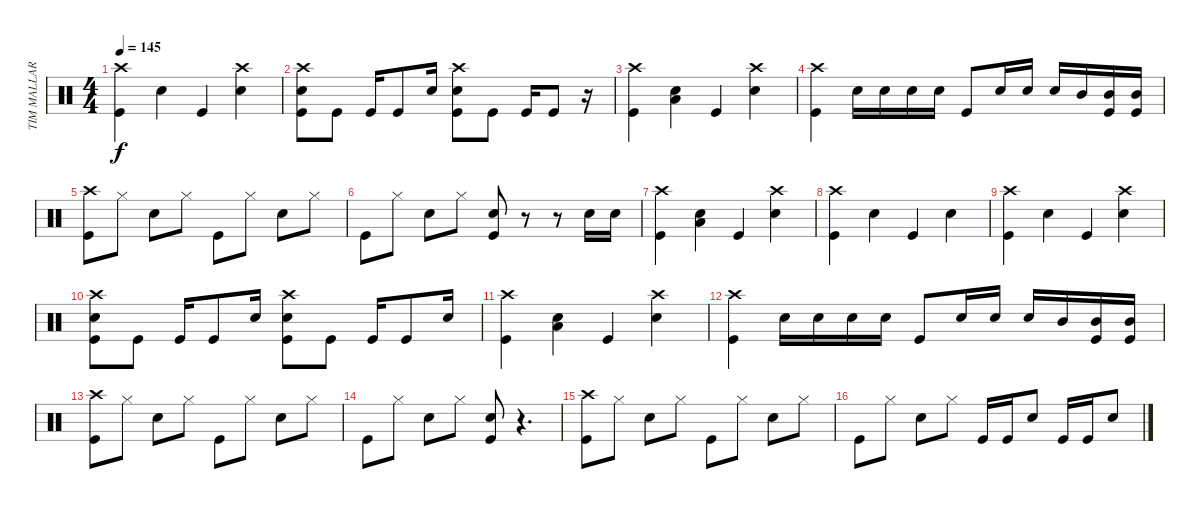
\track ("TIM MALLARE - drums" "TIM MALLAR") {instrument percussion}
\staff {score}
\articulation defaults
\ts (4 4)
\tempo 145
\clef neutral
\ks c
("Crash high (hit)" "Kick (hit)").4{dy f} "Electric Snare (hit)".4 "Kick (hit)".4 ("Crash high (hit)" "Electric Snare (hit)").4 |
("Crash high (hit)" "Electric Snare (hit)" "Kick (hit)").8 "Kick (hit)".8 "Kick (hit)".16 "Kick (hit)".8 "Electric Snare (hit)".16 ("Crash high (hit)" "Electric Snare (hit)" "Kick (hit)").8 "Kick (hit)".8 "Kick (hit)".16 "Kick (hit)".8 r.16 |
("Crash high (hit)" "Kick (hit)").4 ("Electric Snare (hit)" "Low Tom (hit)").4 "Kick (hit)".4 ("Crash high (hit)" "Electric Snare (hit)").4 |
("Crash high (hit)" "Kick (hit)").4 "Electric Snare (hit)".16 "Electric Snare (hit)".16 "Electric Snare (hit)".16 "Electric Snare (hit)".16 "Kick (hit)".8 "Electric Snare (hit)".16 "Electric Snare (hit)".16 "Electric Snare (hit)".16 "Mid Tom (hit)".16 ("Mid Tom (hit)" "Kick (hit)").16 ("Mid Tom (hit)" "Kick (hit)").16 |
("Crash high (hit)" "Kick (hit)").8 "Hi-Hat (closed)".8 "Electric Snare (hit)".8 "Hi-Hat (closed)".8 "Kick (hit)".8 "Hi-Hat (closed)".8 "Electric Snare (hit)".8 "Hi-Hat (closed)".8 |
"Kick (hit)".8 "Hi-Hat (closed)".8 "Electric Snare (hit)".8 "Hi-Hat (closed)".8 ("Electric Snare (hit)" "Kick (hit)").8 r.8 r.8 "Electric Snare (hit)".16 "Electric Snare (hit)".16 |
("Crash high (hit)" "Kick (hit)").4 ("Electric Snare (hit)" "Low Tom (hit)").4 "Kick (hit)".4 ("Crash high (hit)" "Electric Snare (hit)").4 |
("Crash high (hit)" "Kick (hit)").4 "Electric Snare (hit)".4 "Kick (hit)".4 "Electric Snare (hit)".4 |
("Crash high (hit)" "Kick (hit)").4 "Electric Snare (hit)".4 "Kick (hit)".4 ("Crash high (hit)" "Electric Snare (hit)").4 |
("Crash high (hit)" "Electric Snare (hit)" "Kick (hit)").8 "Kick (hit)".8 "Kick (hit)".16 "Kick (hit)".8 "Electric Snare (hit)".16 ("Crash high (hit)" "Electric Snare (hit)" "Kick (hit)").8 "Kick (hit)".8 "Kick (hit)".16 "Kick (hit)".8 "Electric Snare (hit)".16 |
("Crash high (hit)" "Kick (hit)").4 ("Electric Snare (hit)" "Low Tom (hit)").4 "Kick (hit)".4 ("Crash high (hit)" "Electric Snare (hit)").4 |
("Crash high (hit)" "Kick (hit)").4 "Electric Snare (hit)".16 "Electric Snare (hit)".16 "Electric Snare (hit)".16 "Electric Snare (hit)".16 "Kick (hit)".8 "Electric Snare (hit)".16 "Electric Snare (hit)".16 "Electric Snare (hit)".16 "Mid Tom (hit)".16 ("Mid Tom (hit)" "Kick (hit)").16 ("Mid Tom (hit)" "Kick (hit)").16 |
("Crash high (hit)" "Kick (hit)").8 "Hi-Hat (closed)".8 "Electric Snare (hit)".8 "Hi-Hat (closed)".8 "Kick (hit)".8 "Hi-Hat (closed)".8 "Electric Snare (hit)".8 "Hi-Hat (closed)".8 |
"Kick (hit)".8 "Hi-Hat (closed)".8 "Electric Snare (hit)".8 "Hi-Hat (closed)".8 ("Electric Snare (hit)" "Kick (hit)").8 r.4{d} |
("Crash high (hit)" "Kick (hit)").8 "Hi-Hat (closed)".8 "Electric Snare (hit)".8 "Hi-Hat (closed)".8 "Kick (hit)".8 "Hi-Hat (closed)".8 "Electric Snare (hit)".8 "Hi-Hat (closed)".8 |
"Kick (hit)".8 "Hi-Hat (closed)".8 "Electric Snare (hit)".8 "Hi-Hat (closed)".8 "Kick (hit)".16 "Kick (hit)".16 "Electric Snare (hit)".8 "Kick (hit)".16 "Kick (hit)".16 "Electric Snare (hit)".8
